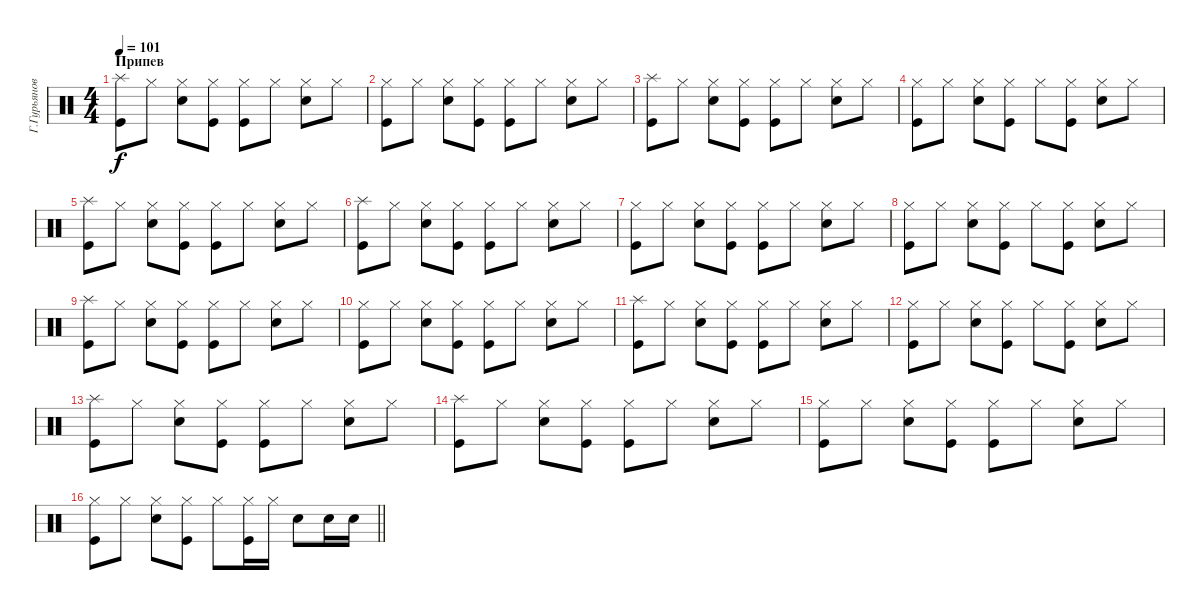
\track ("Г.Гурьянов" "Г.Гурьянов") {instrument percussion}
\staff {score}
\articulation defaults
\ts (4 4)
\section ("" "Припев")
\tempo 101
\clef neutral
\ks c
("Splash (hit)" "Kick (hit)").8{dy f} "Hi-Hat (closed)".8 ("Hi-Hat (closed)" "Snare (hit) 2").8 ("Hi-Hat (closed)" "Kick (hit)").8 ("Hi-Hat (closed)" "Kick (hit)").8 "Hi-Hat (closed)".8 ("Hi-Hat (closed)" "Snare (hit) 2").8 "Hi-Hat (closed)".8 |
("Hi-Hat (closed)" "Kick (hit)").8 "Hi-Hat (closed)".8 ("Hi-Hat (closed)" "Snare (hit) 2").8 ("Hi-Hat (closed)" "Kick (hit)").8 ("Hi-Hat (closed)" "Kick (hit)").8 "Hi-Hat (closed)".8 ("Hi-Hat (closed)" "Snare (hit) 2").8 "Hi-Hat (closed)".8 |
("Splash (hit)" "Kick (hit)").8 "Hi-Hat (closed)".8 ("Hi-Hat (closed)" "Snare (hit) 2").8 ("Hi-Hat (closed)" "Kick (hit)").8 ("Hi-Hat (closed)" "Kick (hit)").8 "Hi-Hat (closed)".8 ("Hi-Hat (closed)" "Snare (hit) 2").8 "Hi-Hat (closed)".8 |
("Hi-Hat (closed)" "Kick (hit)").8 "Hi-Hat (closed)".8 ("Hi-Hat (closed)" "Snare (hit) 2").8 ("Hi-Hat (closed)" "Kick (hit)").8 "Hi-Hat (closed)".8 ("Hi-Hat (closed)" "Kick (hit)").8 ("Hi-Hat (closed)" "Snare (hit) 2").8 "Hi-Hat (closed)".8 |
("Splash (hit)" "Kick (hit)").8 "Hi-Hat (closed)".8 ("Hi-Hat (closed)" "Snare (hit) 2").8 ("Hi-Hat (closed)" "Kick (hit)").8 ("Hi-Hat (closed)" "Kick (hit)").8 "Hi-Hat (closed)".8 ("Hi-Hat (closed)" "Snare (hit) 2").8 "Hi-Hat (closed)".8 |
("Splash (hit)" "Kick (hit)").8 "Hi-Hat (closed)".8 ("Hi-Hat (closed)" "Snare (hit) 2").8 ("Hi-Hat (closed)" "Kick (hit)").8 ("Hi-Hat (closed)" "Kick (hit)").8 "Hi-Hat (closed)".8 ("Hi-Hat (closed)" "Snare (hit) 2").8 "Hi-Hat (closed)".8 |
("Hi-Hat (closed)" "Kick (hit)").8 "Hi-Hat (closed)".8 ("Hi-Hat (closed)" "Snare (hit) 2").8 ("Hi-Hat (closed)" "Kick (hit)").8 ("Hi-Hat (closed)" "Kick (hit)").8 "Hi-Hat (closed)".8 ("Hi-Hat (closed)" "Snare (hit) 2").8 "Hi-Hat (closed)".8 |
("Hi-Hat (closed)" "Kick (hit)").8 "Hi-Hat (closed)".8 ("Hi-Hat (closed)" "Snare (hit) 2").8 ("Hi-Hat (closed)" "Kick (hit)").8 "Hi-Hat (closed)".8 ("Hi-Hat (closed)" "Kick (hit)").8 ("Hi-Hat (closed)" "Snare (hit) 2").8 "Hi-Hat (closed)".8 |
("Splash (hit)" "Kick (hit)").8 "Hi-Hat (closed)".8 ("Hi-Hat (closed)" "Snare (hit) 2").8 ("Hi-Hat (closed)" "Kick (hit)").8 ("Hi-Hat (closed)" "Kick (hit)").8 "Hi-Hat (closed)".8 ("Hi-Hat (closed)" "Snare (hit) 2").8 "Hi-Hat (closed)".8 |
("Hi-Hat (closed)" "Kick (hit)").8 "Hi-Hat (closed)".8 ("Hi-Hat (closed)" "Snare (hit) 2").8 ("Hi-Hat (closed)" "Kick (hit)").8 ("Hi-Hat (closed)" "Kick (hit)").8 "Hi-Hat (closed)".8 ("Hi-Hat (closed)" "Snare (hit) 2").8 "Hi-Hat (closed)".8 |
("Splash (hit)" "Kick (hit)").8 "Hi-Hat (closed)".8 ("Hi-Hat (closed)" "Snare (hit) 2").8 ("Hi-Hat (closed)" "Kick (hit)").8 ("Hi-Hat (closed)" "Kick (hit)").8 "Hi-Hat (closed)".8 ("Hi-Hat (closed)" "Snare (hit) 2").8 "Hi-Hat (closed)".8 |
("Hi-Hat (closed)" "Kick (hit)").8 "Hi-Hat (closed)".8 ("Hi-Hat (closed)" "Snare (hit) 2").8 ("Hi-Hat (closed)" "Kick (hit)").8 "Hi-Hat (closed)".8 ("Hi-Hat (closed)" "Kick (hit)").8 ("Hi-Hat (closed)" "Snare (hit) 2").8 "Hi-Hat (closed)".8 |
("Splash (hit)" "Kick (hit)").8 "Hi-Hat (closed)".8 ("Hi-Hat (closed)" "Snare (hit) 2").8 ("Hi-Hat (closed)" "Kick (hit)").8 ("Hi-Hat (closed)" "Kick (hit)").8 "Hi-Hat (closed)".8 ("Hi-Hat (closed)" "Snare (hit) 2").8 "Hi-Hat (closed)".8 |
("Splash (hit)" "Kick (hit)").8 "Hi-Hat (closed)".8 ("Hi-Hat (closed)" "Snare (hit) 2").8 ("Hi-Hat (closed)" "Kick (hit)").8 ("Hi-Hat (closed)" "Kick (hit)").8 "Hi-Hat (closed)".8 ("Hi-Hat (closed)" "Snare (hit) 2").8 "Hi-Hat (closed)".8 |
("Hi-Hat (closed)" "Kick (hit)").8 "Hi-Hat (closed)".8 ("Hi-Hat (closed)" "Snare (hit) 2").8 ("Hi-Hat (closed)" "Kick (hit)").8 ("Hi-Hat (closed)" "Kick (hit)").8 "Hi-Hat (closed)".8 ("Hi-Hat (closed)" "Snare (hit) 2").8 "Hi-Hat (closed)".8 |
\barLineRight lightlight
("Hi-Hat (closed)" "Kick (hit)").8 "Hi-Hat (closed)".8 ("Hi-Hat (closed)" "Snare (hit) 2").8 ("Hi-Hat (closed)" "Kick (hit)").8 "Hi-Hat (closed)".8 ("Hi-Hat (closed)" "Kick (hit)").16 "Hi-Hat (closed)".16 "Snare (hit) 2".8 "Snare (hit) 2".16 "Snare (hit) 2".16
